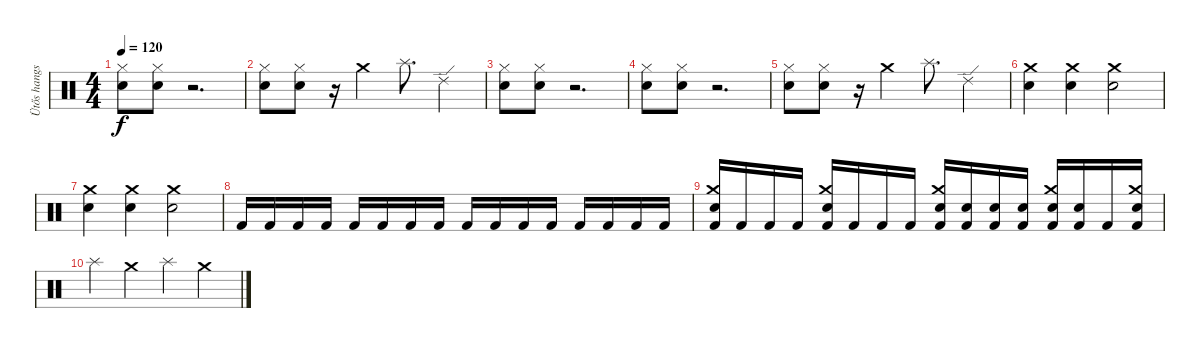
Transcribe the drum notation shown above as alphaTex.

\track ("Ütős hangszer" "Ütős hangs") {instrument percussion}
\staff {score}
\articulation defaults
\ts (4 4)
\tempo 120
\clef neutral
\ks c
("Hi-Hat (closed)" "Snare (hit) 2").8{dy f} ("Hi-Hat (closed)" "Snare (hit) 2").8 r.2{d} |
("Hi-Hat (closed)" "Snare (hit) 2").8 ("Hi-Hat (closed)" "Snare (hit) 2").8 r.16 "Crash medium (hit)".4 "Splash (hit)".8{d} "Ride (edge) 2".4 |
("Hi-Hat (closed)" "Snare (hit) 2").8 ("Hi-Hat (closed)" "Snare (hit) 2").8 r.2{d} |
("Hi-Hat (closed)" "Snare (hit) 2").8 ("Hi-Hat (closed)" "Snare (hit) 2").8 r.2{d} |
("Hi-Hat (closed)" "Snare (hit) 2").8 ("Hi-Hat (closed)" "Snare (hit) 2").8 r.16 "Crash medium (hit)".4 "Splash (hit)".8{d} "Ride (edge) 2".4 |
("Crash medium (hit)" "Snare (hit) 2").4 ("Crash medium (hit)" "Snare (hit) 2").4 ("Crash medium (hit)" "Snare (hit) 2").2 |
("Crash medium (hit)" "Snare (hit) 2").4 ("Crash medium (hit)" "Snare (hit) 2").4 ("Crash medium (hit)" "Snare (hit) 2").2 |
"Kick (hit) 2".16 "Kick (hit) 2".16 "Kick (hit) 2".16 "Kick (hit) 2".16 "Kick (hit) 2".16 "Kick (hit) 2".16 "Kick (hit) 2".16 "Kick (hit) 2".16 "Kick (hit) 2".16 "Kick (hit) 2".16 "Kick (hit) 2".16 "Kick (hit) 2".16 "Kick (hit) 2".16 "Kick (hit) 2".16 "Kick (hit) 2".16 "Kick (hit) 2".16 |
("Crash medium (hit)" "Snare (hit) 2" "Kick (hit) 2").16 "Kick (hit) 2".16 "Kick (hit) 2".16 "Kick (hit) 2".16 ("Crash medium (hit)" "Snare (hit) 2" "Kick (hit) 2").16 "Kick (hit) 2".16 "Kick (hit) 2".16 "Kick (hit) 2".16 ("Crash medium (hit)" "Snare (hit) 2" "Kick (hit) 2").16 ("Snare (hit) 2" "Kick (hit) 2").16 ("Snare (hit) 2" "Kick (hit) 2").16 ("Snare (hit) 2" "Kick (hit) 2").16 ("Crash medium (hit)" "Snare (hit) 2" "Kick (hit) 2").16 ("Snare (hit) 2" "Kick (hit) 2").16 "Kick (hit) 2".16 ("Crash medium (hit)" "Snare (hit) 2" "Kick (hit) 2").16 |
"Splash (hit)".4 "Crash medium (hit)".4 "Splash (hit)".4 "Crash medium (hit)".4
